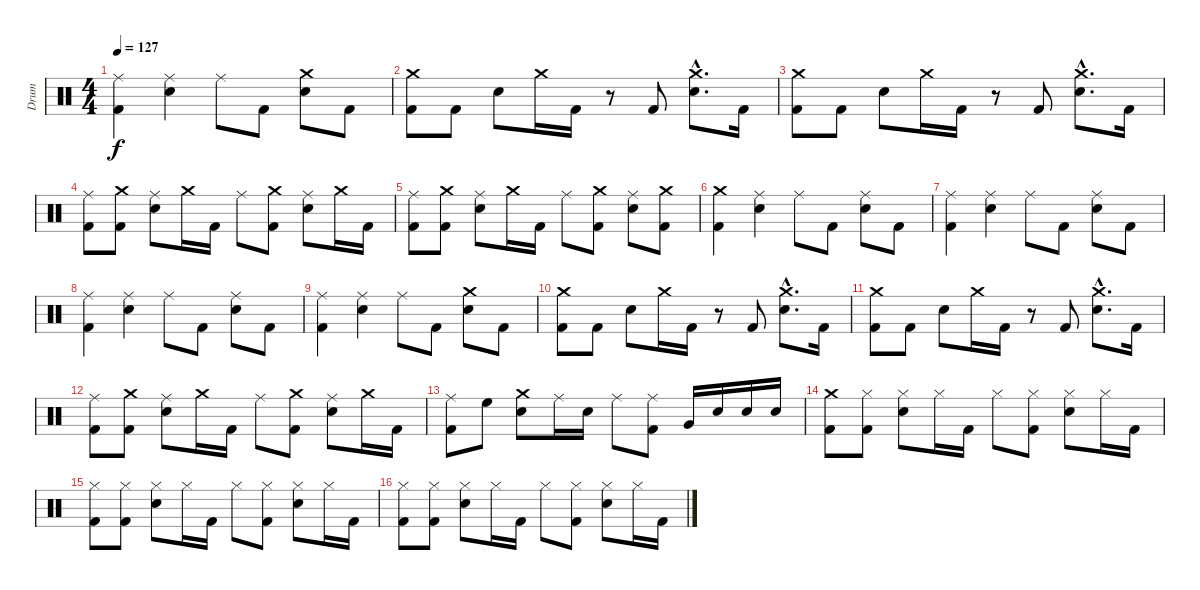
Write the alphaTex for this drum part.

\track ("Drum" "Drum") {instrument percussion}
\staff {score}
\articulation defaults
\ts (4 4)
\tempo 127
\clef neutral
\ks c
("Ride (middle)" "Kick (hit) 2").4{dy f} ("Ride (middle)" "Snare (hit) 2").4 "Ride (middle)".8 "Kick (hit) 2".8 ("Snare (hit) 2" "Crash medium (hit)").8 "Kick (hit) 2".8 |
("Crash medium (hit)" "Kick (hit) 2").8 "Kick (hit) 2".8 "Snare (hit) 2".8 "Crash medium (hit)".16 "Kick (hit) 2".16 r.8 "Kick (hit) 2".8 ("Crash medium (hit)"{hac} "Snare (hit) 2"{hac}).8{d} "Kick (hit) 2".16 |
("Crash medium (hit)" "Kick (hit) 2").8 "Kick (hit) 2".8 "Snare (hit) 2".8 "Crash medium (hit)".16 "Kick (hit) 2".16 r.8 "Kick (hit) 2".8 ("Crash medium (hit)"{hac} "Snare (hit) 2"{hac}).8{d} "Kick (hit) 2".16 |
("Ride (middle)" "Kick (hit) 2").8 ("Crash medium (hit)" "Kick (hit) 2").8 ("Ride (middle)" "Snare (hit) 2").8 "Crash medium (hit)".16 "Kick (hit) 2".16 "Ride (middle)".8 ("Crash medium (hit)" "Kick (hit) 2").8 ("Ride (middle)" "Snare (hit) 2").8 "Crash medium (hit)".16 "Kick (hit) 2".16 |
("Ride (middle)" "Kick (hit) 2").8 ("Crash medium (hit)" "Kick (hit) 2").8 ("Ride (middle)" "Snare (hit) 2").8 "Crash medium (hit)".16 "Kick (hit) 2".16 "Ride (middle)".8 ("Crash medium (hit)" "Kick (hit) 2").8 ("Ride (middle)" "Snare (hit) 2").8 ("Crash medium (hit)" "Kick (hit) 2").8 |
("Crash medium (hit)" "Kick (hit) 2").4 ("Snare (hit) 2" "Ride (middle)").4 "Ride (middle)".8 "Kick (hit) 2".8 ("Snare (hit) 2" "Ride (middle)").8 "Kick (hit) 2".8 |
("Ride (middle)" "Kick (hit) 2").4 ("Ride (middle)" "Snare (hit) 2").4 "Ride (middle)".8 "Kick (hit) 2".8 ("Ride (middle)" "Snare (hit) 2").8 "Kick (hit) 2".8 |
("Ride (middle)" "Kick (hit) 2").4 ("Ride (middle)" "Snare (hit) 2").4 "Ride (middle)".8 "Kick (hit) 2".8 ("Ride (middle)" "Snare (hit) 2").8 "Kick (hit) 2".8 |
("Ride (middle)" "Kick (hit) 2").4 ("Ride (middle)" "Snare (hit) 2").4 "Ride (middle)".8 "Kick (hit) 2".8 ("Snare (hit) 2" "Crash medium (hit)").8 "Kick (hit) 2".8 |
("Crash medium (hit)" "Kick (hit) 2").8 "Kick (hit) 2".8 "Snare (hit) 2".8 "Crash medium (hit)".16 "Kick (hit) 2".16 r.8 "Kick (hit) 2".8 ("Crash medium (hit)"{hac} "Snare (hit) 2"{hac}).8{d} "Kick (hit) 2".16 |
("Crash medium (hit)" "Kick (hit) 2").8 "Kick (hit) 2".8 "Snare (hit) 2".8 "Crash medium (hit)".16 "Kick (hit) 2".16 r.8 "Kick (hit) 2".8 ("Crash medium (hit)"{hac} "Snare (hit) 2"{hac}).8{d} "Kick (hit) 2".16 |
("Ride (middle)" "Kick (hit) 2").8 ("Crash medium (hit)" "Kick (hit) 2").8 ("Ride (middle)" "Snare (hit) 2").8 "Crash medium (hit)".16 "Kick (hit) 2".16 "Ride (middle)".8 ("Crash medium (hit)" "Kick (hit) 2").8 ("Ride (middle)" "Snare (hit) 2").8 "Crash medium (hit)".16 "Kick (hit) 2".16 |
("Ride (middle)" "Kick (hit) 2").8 "High Floor Tom (hit)".8 ("Crash medium (hit)" "Snare (hit) 2").8 "Ride (middle)".16 "Snare (hit) 2".16 "Ride (middle)".8 ("Ride (middle)" "Kick (hit) 2").8 "Very Low Tom (hit)".16 "Snare (hit) 2".16 "Snare (hit) 2".16 "Snare (hit) 2".16 |
("Crash medium (hit)" "Kick (hit) 2").8 ("Hi-Hat (closed)" "Kick (hit) 2").8 ("Hi-Hat (closed)" "Snare (hit) 2").8 "Hi-Hat (closed)".16 "Kick (hit) 2".16 "Hi-Hat (closed)".8 ("Hi-Hat (closed)" "Kick (hit) 2").8 ("Hi-Hat (closed)" "Snare (hit) 2").8 "Hi-Hat (closed)".16 "Kick (hit) 2".16 |
("Kick (hit) 2" "Hi-Hat (closed)").8 ("Hi-Hat (closed)" "Kick (hit) 2").8 ("Hi-Hat (closed)" "Snare (hit) 2").8 "Hi-Hat (closed)".16 "Kick (hit) 2".16 "Hi-Hat (closed)".8 ("Hi-Hat (closed)" "Kick (hit) 2").8 ("Hi-Hat (closed)" "Snare (hit) 2").8 "Hi-Hat (closed)".16 "Kick (hit) 2".16 |
("Kick (hit) 2" "Hi-Hat (closed)").8 ("Hi-Hat (closed)" "Kick (hit) 2").8 ("Hi-Hat (closed)" "Snare (hit) 2").8 "Hi-Hat (closed)".16 "Kick (hit) 2".16 "Hi-Hat (closed)".8 ("Hi-Hat (closed)" "Kick (hit) 2").8 ("Hi-Hat (closed)" "Snare (hit) 2").8 "Hi-Hat (closed)".16 "Kick (hit) 2".16
